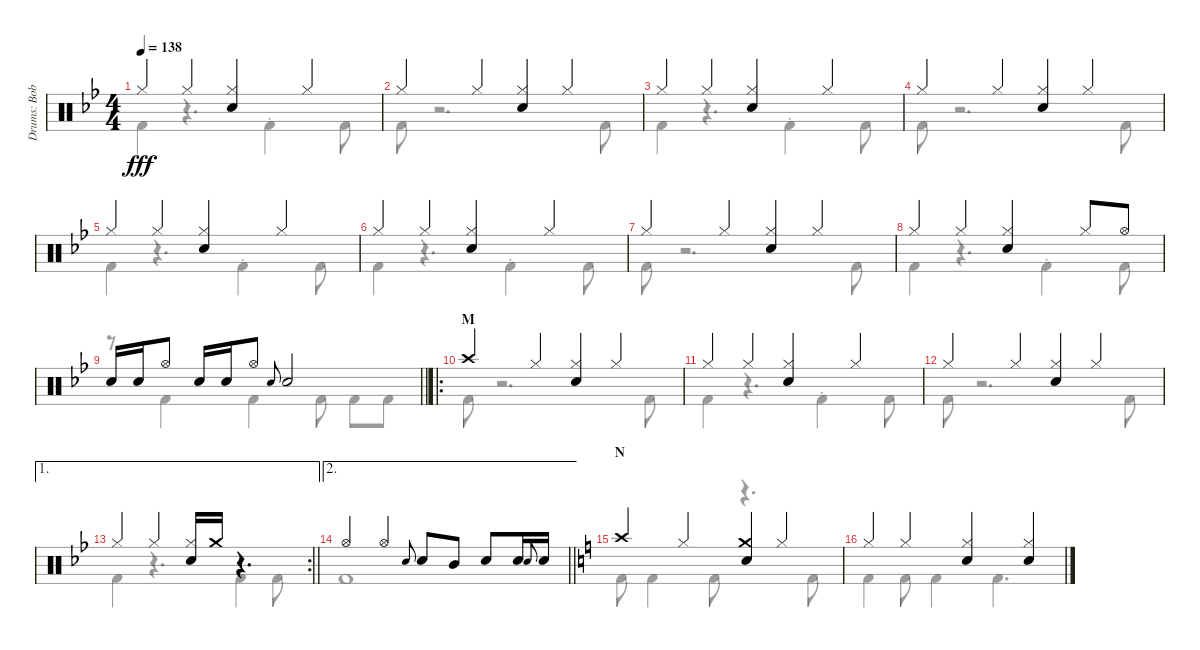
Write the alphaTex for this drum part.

\track ("Drums: Bobby" "Drums: Bob") {instrument percussion}
\staff {score}
\articulation defaults
\voice
\ts (4 4)
\tempo 138
\clef neutral
\ks bb "Hi-Hat (closed)".4{dy fff} "Hi-Hat (closed)".4
("Hi-Hat (closed)" "Snare (hit) 2").4 "Hi-Hat (closed)".4 |
"Hi-Hat (closed)".4 "Hi-Hat (closed)".4 ("Hi-Hat (closed)" "Snare (hit) 2").4 "Hi-Hat (closed)".4 |
"Hi-Hat (closed)".4 "Hi-Hat (closed)".4 ("Hi-Hat (closed)" "Snare (hit) 2").4 "Hi-Hat (closed)".4 |
"Hi-Hat (closed)".4 "Hi-Hat (closed)".4 ("Hi-Hat (closed)" "Snare (hit) 2").4 "Hi-Hat (closed)".4 |
"Hi-Hat (closed)".4 "Hi-Hat (closed)".4 ("Hi-Hat (closed)" "Snare (hit) 2").4 "Hi-Hat (closed)".4 |
"Hi-Hat (closed)".4 "Hi-Hat (closed)".4 ("Hi-Hat (closed)" "Snare (hit) 2").4 "Hi-Hat (closed)".4 |
"Hi-Hat (closed)".4 "Hi-Hat (closed)".4 ("Hi-Hat (closed)" "Snare (hit) 2").4 "Hi-Hat (closed)".4 |
"Hi-Hat (closed)".4 "Hi-Hat (closed)".4 ("Hi-Hat (closed)" "Snare (hit) 2").4 "Hi-Hat (closed)".8 "Hi-Hat (open)".8 |
\barLineRight lightlight "Snare (hit) 2".16 "Snare (hit) 2".16 "Hi-Hat (open)".8 "Snare (hit) 2".16 "Snare (hit) 2".16 "Hi-Hat (open)".8 "Electric Snare (hit)".8{gr onbeat} "Snare (hit) 2".2
|
\ro
\section ("" "M")
"Crash high (hit)".4 "Hi-Hat (closed)".4 ("Hi-Hat (closed)" "Snare (hit) 2").4 "Hi-Hat (closed)".4 |
"Hi-Hat (closed)".4 "Hi-Hat (closed)".4 ("Hi-Hat (closed)" "Snare (hit) 2").4 "Hi-Hat (closed)".4 |
"Hi-Hat (closed)".4 "Hi-Hat (closed)".4 ("Hi-Hat (closed)" "Snare (hit) 2").4 "Hi-Hat (closed)".4 |
\ae 1
\rc 2
\barLineRight lightlight "Hi-Hat (closed)".4 "Hi-Hat (closed)".4
("Hi-Hat (closed)" "Snare (hit) 2").16 "Crash medium (hit)".16 r.4{d} |
\ae 2
\barLineRight lightlight "Hi-Hat (open)".4 "Hi-Hat (open)".4 "Electric Snare (hit)".8{gr onbeat} "Snare (hit) 2".8 "Mid Tom (hit)".8 "Snare (hit) 2".8 "Snare (hit) 2".16 "Electric Snare (hit)".8{gr onbeat} "Snare (hit) 2".16
|
\section ("" "N")
\ks c "Crash high (hit)".4 "Hi-Hat (closed)".4
("Crash medium (hit)" "Snare (hit) 2").4 "Hi-Hat (closed)".4 |
"Hi-Hat (closed)".4 "Hi-Hat (closed)".4 ("Hi-Hat (closed)" "Snare (hit) 2").4 ("Hi-Hat (closed)" "Snare (hit) 2").4
\voice
\clef neutral
\ottava regular
\simile none
\ks bb "Kick (hit) 2".4{dy fff}
r.4{d} "Kick (hit) 2"{st}.4 "Kick (hit) 2".8 |
"Kick (hit) 2".8 r.2{d} "Kick (hit) 2".8 |
"Kick (hit) 2".4 r.4{d} "Kick (hit) 2"{st}.4 "Kick (hit) 2".8 |
"Kick (hit) 2".8 r.2{d} "Kick (hit) 2".8 |
"Kick (hit) 2".4 r.4{d} "Kick (hit) 2"{st}.4 "Kick (hit) 2".8 |
"Kick (hit) 2".4 r.4{d} "Kick (hit) 2"{st}.4 "Kick (hit) 2".8 |
"Kick (hit) 2".8 r.2{d} "Kick (hit) 2".8 |
"Kick (hit) 2".4 r.4{d} "Kick (hit) 2"{st}.4 "Kick (hit) 2".8 |
\barLineRight lightlight
r.8 "Kick (hit) 2".4 "Kick (hit) 2".4 "Kick (hit) 2".8 "Kick (hit) 2".8 "Kick (hit) 2".8 |
"Kick (hit) 2".8 r.2{d} "Kick (hit) 2".8 |
"Kick (hit) 2".4 r.4{d} "Kick (hit) 2"{st}.4 "Kick (hit) 2".8 |
"Kick (hit) 2".8 r.2{d} "Kick (hit) 2".8 |
\barLineRight lightlight "Kick (hit) 2".4
r.4{d} "Kick (hit) 2"{st}.4 "Kick (hit) 2".8 |
\barLineRight lightlight "Kick (hit) 2".1
|
\ks c "Kick (hit) 2".8 "Kick (hit) 2".4 "Kick (hit) 2".8
r.4{d} "Kick (hit) 2".8 |
"Kick (hit) 2".4 "Kick (hit) 2".8 "Kick (hit) 2".4 "Kick (hit) 2".4{d}
